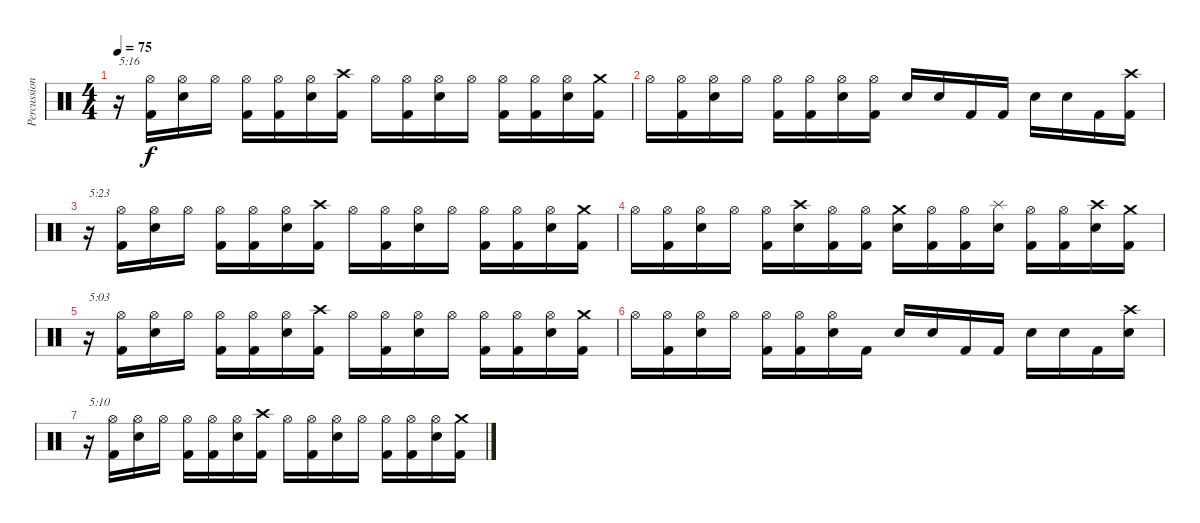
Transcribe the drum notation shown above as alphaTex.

\track ("Percussion" "Percussion") {instrument percussion}
\staff {score}
\articulation defaults
\ts (4 4)
\tempo 75
\clef neutral
\ks c
r.16{txt "5:16" dy f} ("Hi-Hat (open)" "Kick (hit) 2").16 ("Hi-Hat (open)" "Electric Snare (hit)").16 "Hi-Hat (open)".16 ("Hi-Hat (open)" "Kick (hit) 2").16 ("Hi-Hat (open)" "Kick (hit) 2").16 ("Hi-Hat (open)" "Electric Snare (hit)").16 ("Crash high (hit)" "Kick (hit) 2").16 "Hi-Hat (open)".16 ("Hi-Hat (open)" "Kick (hit) 2").16 ("Hi-Hat (open)" "Electric Snare (hit)").16 "Hi-Hat (open)".16 ("Hi-Hat (open)" "Kick (hit) 2").16 ("Hi-Hat (open)" "Kick (hit) 2").16 ("Hi-Hat (open)" "Electric Snare (hit)").16 ("Crash medium (hit)" "Kick (hit) 2").16 |
"Hi-Hat (open)".16 ("Hi-Hat (open)" "Kick (hit) 2").16 ("Hi-Hat (open)" "Electric Snare (hit)").16 "Hi-Hat (open)".16 ("Hi-Hat (open)" "Kick (hit) 2").16 ("Hi-Hat (open)" "Kick (hit) 2").16 ("Hi-Hat (open)" "Electric Snare (hit)").16 ("Hi-Hat (open)" "Kick (hit) 2").16 "Electric Snare (hit)".16 "Electric Snare (hit)".16 "Kick (hit) 2".16 "Kick (hit) 2".16 "Electric Snare (hit)".16 "Electric Snare (hit)".16 "Kick (hit) 2".16 ("Crash high (hit)" "Kick (hit) 2").16 |
r.16{txt "5:23"} ("Hi-Hat (open)" "Kick (hit) 2").16 ("Hi-Hat (open)" "Electric Snare (hit)").16 "Hi-Hat (open)".16 ("Hi-Hat (open)" "Kick (hit) 2").16 ("Hi-Hat (open)" "Kick (hit) 2").16 ("Hi-Hat (open)" "Electric Snare (hit)").16 ("Crash high (hit)" "Kick (hit) 2").16 "Hi-Hat (open)".16 ("Hi-Hat (open)" "Kick (hit) 2").16 ("Hi-Hat (open)" "Electric Snare (hit)").16 "Hi-Hat (open)".16 ("Hi-Hat (open)" "Kick (hit) 2").16 ("Hi-Hat (open)" "Kick (hit) 2").16 ("Hi-Hat (open)" "Electric Snare (hit)").16 ("Crash medium (hit)" "Kick (hit) 2").16 |
"Hi-Hat (open)".16 ("Hi-Hat (open)" "Kick (hit) 2").16 ("Hi-Hat (open)" "Electric Snare (hit)").16 "Hi-Hat (open)".16 ("Hi-Hat (open)" "Kick (hit) 2").16 ("Crash high (hit)" "Electric Snare (hit)").16 ("Hi-Hat (open)" "Kick (hit) 2").16 ("Hi-Hat (open)" "Kick (hit) 2").16 ("Crash medium (hit)" "Electric Snare (hit)").16 ("Hi-Hat (open)" "Kick (hit) 2").16 ("Hi-Hat (open)" "Kick (hit) 2").16 ("Splash (hit)" "Electric Snare (hit)").16 ("Hi-Hat (open)" "Kick (hit) 2").16 ("Hi-Hat (open)" "Kick (hit) 2").16 ("Crash high (hit)" "Electric Snare (hit)").16 ("Crash medium (hit)" "Kick (hit) 2").16{volume 12} |
r.16{txt "5:03"} ("Hi-Hat (open)" "Kick (hit) 2").16 ("Hi-Hat (open)" "Electric Snare (hit)").16 "Hi-Hat (open)".16{volume 11} ("Hi-Hat (open)" "Kick (hit) 2").16 ("Hi-Hat (open)" "Kick (hit) 2").16 ("Hi-Hat (open)" "Electric Snare (hit)").16 ("Crash high (hit)" "Kick (hit) 2").16{volume 10} "Hi-Hat (open)".16 ("Hi-Hat (open)" "Kick (hit) 2").16 ("Hi-Hat (open)" "Electric Snare (hit)").16 "Hi-Hat (open)".16{volume 9} ("Hi-Hat (open)" "Kick (hit) 2").16 ("Hi-Hat (open)" "Kick (hit) 2").16 ("Hi-Hat (open)" "Electric Snare (hit)").16 ("Crash medium (hit)" "Kick (hit) 2").16{volume 8} |
"Hi-Hat (open)".16 ("Hi-Hat (open)" "Kick (hit) 2").16 ("Hi-Hat (open)" "Electric Snare (hit)").16 "Hi-Hat (open)".16{volume 7} ("Hi-Hat (open)" "Kick (hit) 2").16 ("Hi-Hat (open)" "Kick (hit) 2").16 ("Hi-Hat (open)" "Electric Snare (hit)").16 "Kick (hit) 2".16{volume 6} "Electric Snare (hit)".16 "Electric Snare (hit)".16 "Kick (hit) 2".16 "Kick (hit) 2".16{volume 5} "Electric Snare (hit)".16 "Electric Snare (hit)".16 "Kick (hit) 2".16 ("Crash high (hit)" "Electric Snare (hit)").16{volume 4} |
r.16{txt "5:10"} ("Hi-Hat (open)" "Kick (hit) 2").16 ("Hi-Hat (open)" "Electric Snare (hit)").16 "Hi-Hat (open)".16{volume 3} ("Hi-Hat (open)" "Kick (hit) 2").16 ("Hi-Hat (open)" "Kick (hit) 2").16 ("Hi-Hat (open)" "Electric Snare (hit)").16 ("Crash high (hit)" "Kick (hit) 2").16{volume 2} "Hi-Hat (open)".16 ("Hi-Hat (open)" "Kick (hit) 2").16 ("Hi-Hat (open)" "Electric Snare (hit)").16 "Hi-Hat (open)".16{volume 1} ("Hi-Hat (open)" "Kick (hit) 2").16 ("Hi-Hat (open)" "Kick (hit) 2").16 ("Hi-Hat (open)" "Electric Snare (hit)").16 ("Crash medium (hit)" "Kick (hit) 2").16
